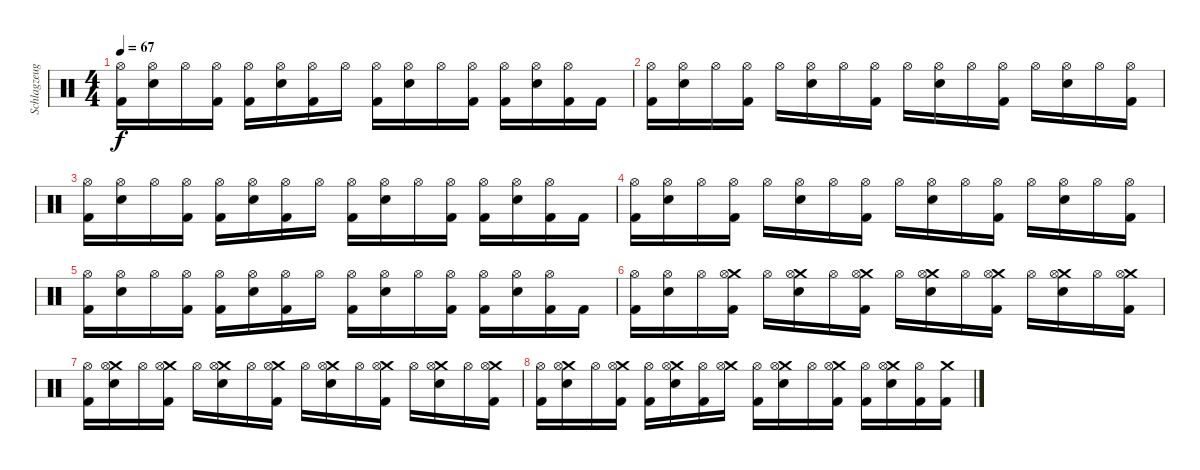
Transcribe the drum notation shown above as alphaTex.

\track ("Schlagzeug" "Schlagzeug") {instrument percussion}
\staff {score}
\articulation defaults
\ts (4 4)
\tempo 67
\clef neutral
\ks c
("Hi-Hat (open)" "Kick (hit) 2").16{dy f} ("Hi-Hat (open)" "Snare (hit) 2").16 "Hi-Hat (open)".16 ("Hi-Hat (open)" "Kick (hit) 2").16 ("Hi-Hat (open)" "Kick (hit) 2").16 ("Hi-Hat (open)" "Snare (hit) 2").16 ("Hi-Hat (open)" "Kick (hit) 2").16 "Hi-Hat (open)".16 ("Hi-Hat (open)" "Kick (hit) 2").16 ("Hi-Hat (open)" "Snare (hit) 2").16 "Hi-Hat (open)".16 ("Hi-Hat (open)" "Kick (hit) 2").16 ("Hi-Hat (open)" "Kick (hit) 2").16 ("Hi-Hat (open)" "Snare (hit) 2").16 ("Hi-Hat (open)" "Kick (hit) 2").16 "Kick (hit) 2".16 |
("Hi-Hat (open)" "Kick (hit) 2").16 ("Hi-Hat (open)" "Snare (hit) 2").16 "Hi-Hat (open)".16 ("Hi-Hat (open)" "Kick (hit) 2").16 "Hi-Hat (open)".16 ("Hi-Hat (open)" "Snare (hit) 2").16 "Hi-Hat (open)".16 ("Hi-Hat (open)" "Kick (hit) 2").16 "Hi-Hat (open)".16 ("Hi-Hat (open)" "Snare (hit) 2").16 "Hi-Hat (open)".16 ("Hi-Hat (open)" "Kick (hit) 2").16 "Hi-Hat (open)".16 ("Hi-Hat (open)" "Snare (hit) 2").16 "Hi-Hat (open)".16 ("Hi-Hat (open)" "Kick (hit) 2").16 |
("Hi-Hat (open)" "Kick (hit) 2").16 ("Hi-Hat (open)" "Snare (hit) 2").16 "Hi-Hat (open)".16 ("Hi-Hat (open)" "Kick (hit) 2").16 ("Hi-Hat (open)" "Kick (hit) 2").16 ("Hi-Hat (open)" "Snare (hit) 2").16 ("Hi-Hat (open)" "Kick (hit) 2").16 "Hi-Hat (open)".16 ("Hi-Hat (open)" "Kick (hit) 2").16 ("Hi-Hat (open)" "Snare (hit) 2").16 "Hi-Hat (open)".16 ("Hi-Hat (open)" "Kick (hit) 2").16 ("Hi-Hat (open)" "Kick (hit) 2").16 ("Hi-Hat (open)" "Snare (hit) 2").16 ("Hi-Hat (open)" "Kick (hit) 2").16 "Kick (hit) 2".16 |
("Hi-Hat (open)" "Kick (hit) 2").16 ("Hi-Hat (open)" "Snare (hit) 2").16 "Hi-Hat (open)".16 ("Hi-Hat (open)" "Kick (hit) 2").16 "Hi-Hat (open)".16 ("Hi-Hat (open)" "Snare (hit) 2").16 "Hi-Hat (open)".16 ("Hi-Hat (open)" "Kick (hit) 2").16 "Hi-Hat (open)".16 ("Hi-Hat (open)" "Snare (hit) 2").16 "Hi-Hat (open)".16 ("Hi-Hat (open)" "Kick (hit) 2").16 "Hi-Hat (open)".16 ("Hi-Hat (open)" "Snare (hit) 2").16 "Hi-Hat (open)".16 ("Hi-Hat (open)" "Kick (hit) 2").16 |
("Hi-Hat (open)" "Kick (hit) 2").16 ("Hi-Hat (open)" "Snare (hit) 2").16 "Hi-Hat (open)".16 ("Hi-Hat (open)" "Kick (hit) 2").16 ("Hi-Hat (open)" "Kick (hit) 2").16 ("Hi-Hat (open)" "Snare (hit) 2").16 ("Hi-Hat (open)" "Kick (hit) 2").16 "Hi-Hat (open)".16 ("Hi-Hat (open)" "Kick (hit) 2").16 ("Hi-Hat (open)" "Snare (hit) 2").16 "Hi-Hat (open)".16 ("Hi-Hat (open)" "Kick (hit) 2").16 ("Hi-Hat (open)" "Kick (hit) 2").16 ("Hi-Hat (open)" "Snare (hit) 2").16 ("Hi-Hat (open)" "Kick (hit) 2").16 "Kick (hit) 2".16 |
("Hi-Hat (open)" "Kick (hit) 2").16 ("Hi-Hat (open)" "Snare (hit) 2").16 "Hi-Hat (open)".16 ("Crash medium (hit)" "Hi-Hat (open)" "Kick (hit) 2").16 "Hi-Hat (open)".16 ("Crash medium (hit)" "Hi-Hat (open)" "Snare (hit) 2").16 "Hi-Hat (open)".16 ("Crash medium (hit)" "Hi-Hat (open)" "Kick (hit) 2").16 "Hi-Hat (open)".16 ("Crash medium (hit)" "Hi-Hat (open)" "Snare (hit) 2").16 "Hi-Hat (open)".16 ("Crash medium (hit)" "Hi-Hat (open)" "Kick (hit) 2").16 "Hi-Hat (open)".16 ("Crash medium (hit)" "Hi-Hat (open)" "Snare (hit) 2").16 "Hi-Hat (open)".16 ("Crash medium (hit)" "Hi-Hat (open)" "Kick (hit) 2").16 |
("Hi-Hat (open)" "Kick (hit) 2").16 ("Crash medium (hit)" "Hi-Hat (open)" "Snare (hit) 2").16 "Hi-Hat (open)".16 ("Crash medium (hit)" "Hi-Hat (open)" "Kick (hit) 2").16 "Hi-Hat (open)".16 ("Crash medium (hit)" "Hi-Hat (open)" "Snare (hit) 2").16 "Hi-Hat (open)".16 ("Crash medium (hit)" "Hi-Hat (open)" "Kick (hit) 2").16 "Hi-Hat (open)".16 ("Crash medium (hit)" "Hi-Hat (open)" "Snare (hit) 2").16 "Hi-Hat (open)".16 ("Crash medium (hit)" "Hi-Hat (open)" "Kick (hit) 2").16 "Hi-Hat (open)".16 ("Crash medium (hit)" "Hi-Hat (open)" "Snare (hit) 2").16 "Hi-Hat (open)".16 ("Crash medium (hit)" "Hi-Hat (open)" "Kick (hit) 2").16 |
("Hi-Hat (open)" "Kick (hit) 2").16 ("Crash medium (hit)" "Hi-Hat (open)" "Snare (hit) 2").16 "Hi-Hat (open)".16 ("Crash medium (hit)" "Hi-Hat (open)" "Kick (hit) 2").16 ("Hi-Hat (open)" "Kick (hit) 2").16 ("Crash medium (hit)" "Hi-Hat (open)" "Snare (hit) 2").16 ("Hi-Hat (open)" "Kick (hit) 2").16 ("Crash medium (hit)" "Hi-Hat (open)").16 ("Hi-Hat (open)" "Kick (hit) 2").16 ("Crash medium (hit)" "Hi-Hat (open)" "Snare (hit) 2").16 "Hi-Hat (open)".16 ("Crash medium (hit)" "Hi-Hat (open)" "Kick (hit) 2").16 ("Hi-Hat (open)" "Kick (hit) 2").16 ("Crash medium (hit)" "Hi-Hat (open)" "Snare (hit) 2").16 ("Hi-Hat (open)" "Kick (hit) 2").16 ("Crash medium (hit)" "Kick (hit) 2").16
